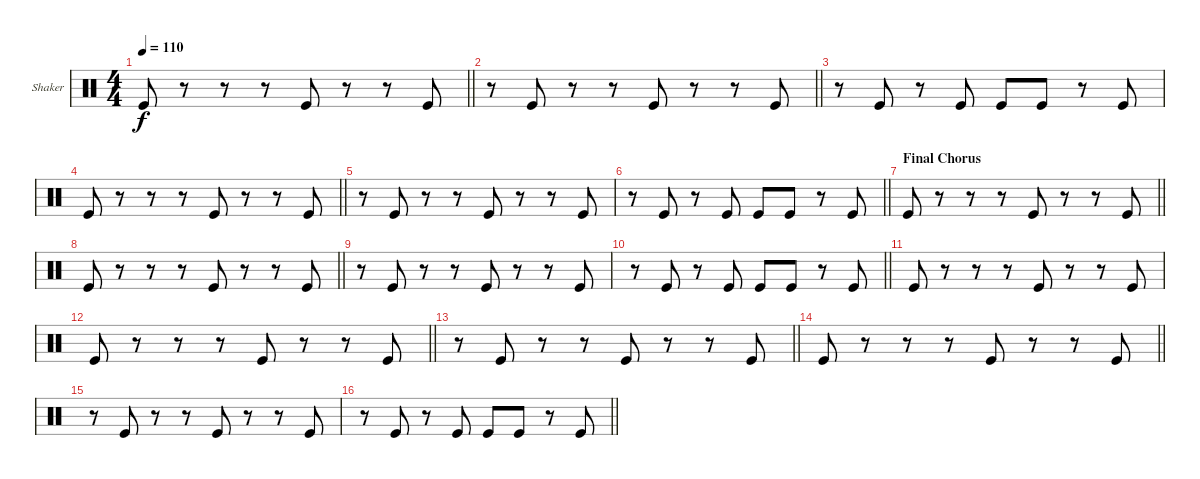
\bracketExtendMode groupsimilarinstruments
\firstSystemTrackNameOrientation horizontal
\otherSystemsTrackNameOrientation horizontal
\track ("Shaker" "Shaker") {instrument percussion}
\staff {score}
\articulation defaults
\ts (4 4)
\tempo 110
\clef neutral
\barLineRight lightlight
\ks c "Kick (hit)".8{dy f}
r.8 r.8 r.8 "Kick (hit)".8 r.8 r.8 "Kick (hit)".8 |
\barLineRight lightlight
r.8 "Kick (hit)".8 r.8 r.8 "Kick (hit)".8 r.8 r.8 "Kick (hit)".8 |
r.8 "Kick (hit)".8 r.8 "Kick (hit)".8 "Kick (hit)".8 "Kick (hit)".8 r.8 "Kick (hit)".8 |
\barLineRight lightlight "Kick (hit)".8
r.8 r.8 r.8 "Kick (hit)".8 r.8 r.8 "Kick (hit)".8 |
r.8 "Kick (hit)".8 r.8 r.8 "Kick (hit)".8 r.8 r.8 "Kick (hit)".8 |
\barLineRight lightlight
r.8 "Kick (hit)".8 r.8 "Kick (hit)".8 "Kick (hit)".8 "Kick (hit)".8 r.8 "Kick (hit)".8 |
\section ("" "Final Chorus")
\barLineRight lightlight "Kick (hit)".8
r.8 r.8 r.8 "Kick (hit)".8 r.8 r.8 "Kick (hit)".8 |
\barLineRight lightlight "Kick (hit)".8
r.8 r.8 r.8 "Kick (hit)".8 r.8 r.8 "Kick (hit)".8 |
r.8 "Kick (hit)".8 r.8 r.8 "Kick (hit)".8 r.8 r.8 "Kick (hit)".8 |
\barLineRight lightlight
r.8 "Kick (hit)".8 r.8 "Kick (hit)".8 "Kick (hit)".8 "Kick (hit)".8 r.8 "Kick (hit)".8 |
"Kick (hit)".8 r.8 r.8 r.8 "Kick (hit)".8 r.8 r.8 "Kick (hit)".8 |
\barLineRight lightlight "Kick (hit)".8
r.8 r.8 r.8 "Kick (hit)".8 r.8 r.8 "Kick (hit)".8 |
\barLineRight lightlight
r.8 "Kick (hit)".8 r.8 r.8 "Kick (hit)".8 r.8 r.8 "Kick (hit)".8 |
\barLineRight lightlight "Kick (hit)".8
r.8 r.8 r.8 "Kick (hit)".8 r.8 r.8 "Kick (hit)".8 |
r.8 "Kick (hit)".8 r.8 r.8 "Kick (hit)".8 r.8 r.8 "Kick (hit)".8 |
\barLineRight lightlight
r.8 "Kick (hit)".8 r.8 "Kick (hit)".8 "Kick (hit)".8 "Kick (hit)".8 r.8 "Kick (hit)".8
